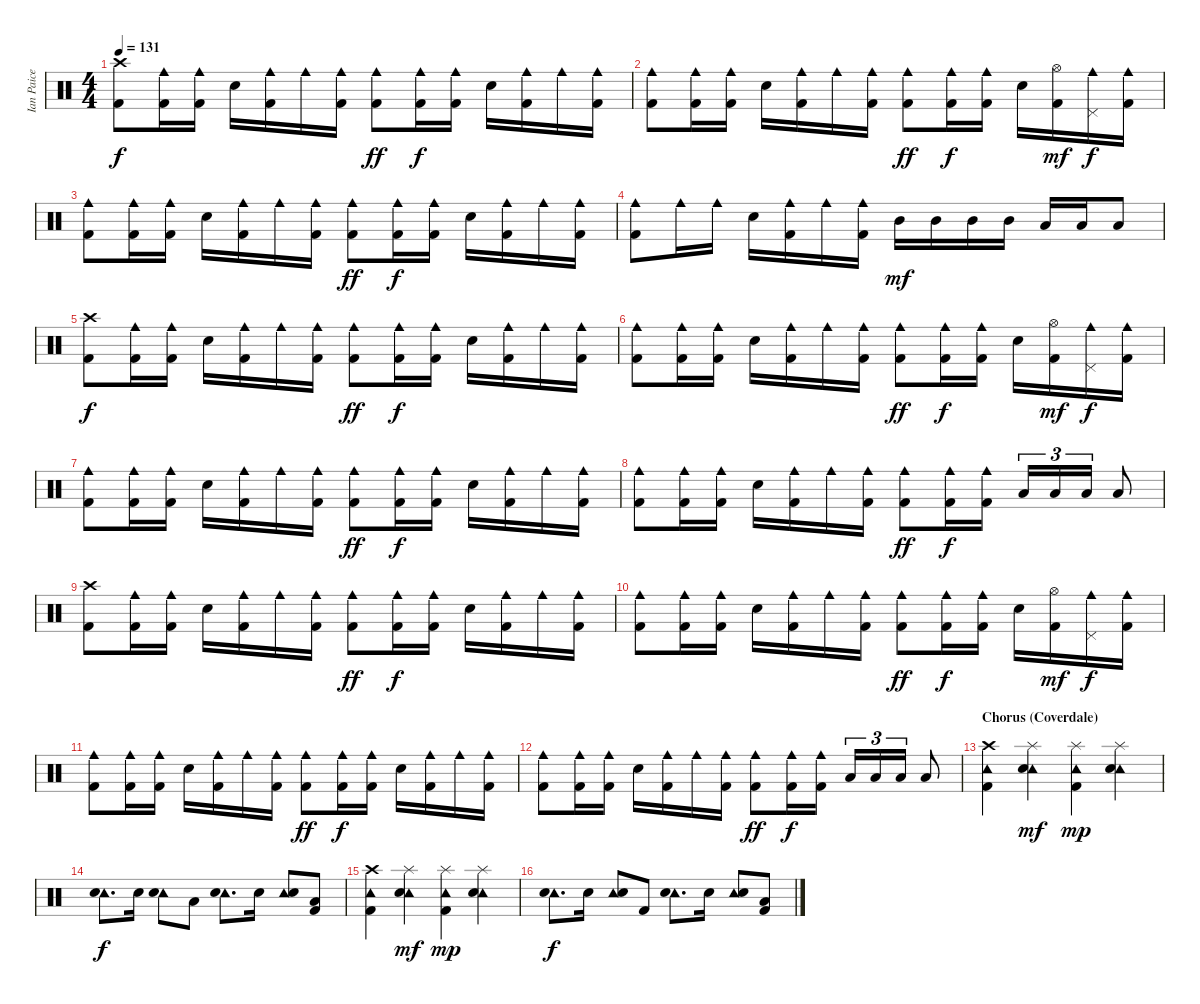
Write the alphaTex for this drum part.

\track ("Ian Paice" "Ian Paice") {instrument percussion}
\staff {score}
\articulation defaults
\ts (4 4)
\tempo 131
\clef neutral
\ks c
("Crash high (hit)" "Kick (hit) 2").8{dy f} ("Cowbell medium (hit)" "Kick (hit) 2").16 ("Cowbell medium (hit)" "Kick (hit) 2").16 "Snare (hit) 2".16 ("Cowbell medium (hit)" "Kick (hit) 2").16 "Cowbell medium (hit)".16 ("Cowbell medium (hit)" "Kick (hit) 2").16 ("Cowbell medium (hit)" "Kick (hit) 2").8{dy ff} ("Cowbell medium (hit)" "Kick (hit) 2").16{dy f} ("Cowbell medium (hit)" "Kick (hit) 2").16 "Snare (hit) 2".16 ("Cowbell medium (hit)" "Kick (hit) 2").16 "Cowbell medium (hit)".16 ("Cowbell medium (hit)" "Kick (hit) 2").16 |
("Cowbell medium (hit)" "Kick (hit) 2").8 ("Cowbell medium (hit)" "Kick (hit) 2").16 ("Cowbell medium (hit)" "Kick (hit) 2").16 "Snare (hit) 2".16 ("Cowbell medium (hit)" "Kick (hit) 2").16 "Cowbell medium (hit)".16 ("Cowbell medium (hit)" "Kick (hit) 2").16 ("Cowbell medium (hit)" "Kick (hit) 2").8{dy ff} ("Cowbell medium (hit)" "Kick (hit) 2").16{dy f} ("Cowbell medium (hit)" "Kick (hit) 2").16 "Snare (hit) 2".16 ("Hi-Hat (open)" "Kick (hit) 2").16{dy mf} ("Pedal Hi-Hat (hit)" "Cowbell medium (hit)").16{dy f} ("Cowbell medium (hit)" "Kick (hit) 2").16 |
("Cowbell medium (hit)" "Kick (hit) 2").8 ("Cowbell medium (hit)" "Kick (hit) 2").16 ("Cowbell medium (hit)" "Kick (hit) 2").16 "Snare (hit) 2".16 ("Cowbell medium (hit)" "Kick (hit) 2").16 "Cowbell medium (hit)".16 ("Cowbell medium (hit)" "Kick (hit) 2").16 ("Cowbell medium (hit)" "Kick (hit) 2").8{dy ff} ("Cowbell medium (hit)" "Kick (hit) 2").16{dy f} ("Cowbell medium (hit)" "Kick (hit) 2").16 "Snare (hit) 2".16 ("Cowbell medium (hit)" "Kick (hit) 2").16 "Cowbell medium (hit)".16 ("Cowbell medium (hit)" "Kick (hit) 2").16 |
("Cowbell medium (hit)" "Kick (hit) 2").8 "Cowbell medium (hit)".16 "Cowbell medium (hit)".16 "Snare (hit) 2".16 ("Cowbell medium (hit)" "Kick (hit) 2").16 "Cowbell medium (hit)".16 ("Cowbell medium (hit)" "Kick (hit) 2").16 "Mid Tom (hit)".16{dy mf} "Mid Tom (hit)".16 "Mid Tom (hit)".16 "Mid Tom (hit)".16 "Low Tom (hit)".16 "Low Tom (hit)".16 "Low Tom (hit)".8 |
("Crash high (hit)" "Kick (hit) 2").8{dy f} ("Cowbell medium (hit)" "Kick (hit) 2").16 ("Cowbell medium (hit)" "Kick (hit) 2").16 "Snare (hit) 2".16 ("Cowbell medium (hit)" "Kick (hit) 2").16 "Cowbell medium (hit)".16 ("Cowbell medium (hit)" "Kick (hit) 2").16 ("Cowbell medium (hit)" "Kick (hit) 2").8{dy ff} ("Cowbell medium (hit)" "Kick (hit) 2").16{dy f} ("Cowbell medium (hit)" "Kick (hit) 2").16 "Snare (hit) 2".16 ("Cowbell medium (hit)" "Kick (hit) 2").16 "Cowbell medium (hit)".16 ("Cowbell medium (hit)" "Kick (hit) 2").16 |
("Cowbell medium (hit)" "Kick (hit) 2").8 ("Cowbell medium (hit)" "Kick (hit) 2").16 ("Cowbell medium (hit)" "Kick (hit) 2").16 "Snare (hit) 2".16 ("Cowbell medium (hit)" "Kick (hit) 2").16 "Cowbell medium (hit)".16 ("Cowbell medium (hit)" "Kick (hit) 2").16 ("Cowbell medium (hit)" "Kick (hit) 2").8{dy ff} ("Cowbell medium (hit)" "Kick (hit) 2").16{dy f} ("Cowbell medium (hit)" "Kick (hit) 2").16 "Snare (hit) 2".16 ("Hi-Hat (open)" "Kick (hit) 2").16{dy mf} ("Pedal Hi-Hat (hit)" "Cowbell medium (hit)").16{dy f} ("Cowbell medium (hit)" "Kick (hit) 2").16 |
("Cowbell medium (hit)" "Kick (hit) 2").8 ("Cowbell medium (hit)" "Kick (hit) 2").16 ("Cowbell medium (hit)" "Kick (hit) 2").16 "Snare (hit) 2".16 ("Cowbell medium (hit)" "Kick (hit) 2").16 "Cowbell medium (hit)".16 ("Cowbell medium (hit)" "Kick (hit) 2").16 ("Cowbell medium (hit)" "Kick (hit) 2").8{dy ff} ("Cowbell medium (hit)" "Kick (hit) 2").16{dy f} ("Cowbell medium (hit)" "Kick (hit) 2").16 "Snare (hit) 2".16 ("Cowbell medium (hit)" "Kick (hit) 2").16 "Cowbell medium (hit)".16 ("Cowbell medium (hit)" "Kick (hit) 2").16 |
("Cowbell medium (hit)" "Kick (hit) 2").8 ("Cowbell medium (hit)" "Kick (hit) 2").16 ("Cowbell medium (hit)" "Kick (hit) 2").16 "Snare (hit) 2".16 ("Cowbell medium (hit)" "Kick (hit) 2").16 "Cowbell medium (hit)".16 ("Cowbell medium (hit)" "Kick (hit) 2").16 ("Cowbell medium (hit)" "Kick (hit) 2").8{dy ff} ("Cowbell medium (hit)" "Kick (hit) 2").16{dy f} ("Cowbell medium (hit)" "Kick (hit) 2").16 "Low Tom (hit)".16{tu (3 2)} "Low Tom (hit)".16{tu (3 2)} "Low Tom (hit)".16{tu (3 2)} "Low Floor Tom (hit)".8 |
("Crash high (hit)" "Kick (hit) 2").8 ("Cowbell medium (hit)" "Kick (hit) 2").16 ("Cowbell medium (hit)" "Kick (hit) 2").16 "Snare (hit) 2".16 ("Cowbell medium (hit)" "Kick (hit) 2").16 "Cowbell medium (hit)".16 ("Cowbell medium (hit)" "Kick (hit) 2").16 ("Cowbell medium (hit)" "Kick (hit) 2").8{dy ff} ("Cowbell medium (hit)" "Kick (hit) 2").16{dy f} ("Cowbell medium (hit)" "Kick (hit) 2").16 "Snare (hit) 2".16 ("Cowbell medium (hit)" "Kick (hit) 2").16 "Cowbell medium (hit)".16 ("Cowbell medium (hit)" "Kick (hit) 2").16 |
("Cowbell medium (hit)" "Kick (hit) 2").8 ("Cowbell medium (hit)" "Kick (hit) 2").16 ("Cowbell medium (hit)" "Kick (hit) 2").16 "Snare (hit) 2".16 ("Cowbell medium (hit)" "Kick (hit) 2").16 "Cowbell medium (hit)".16 ("Cowbell medium (hit)" "Kick (hit) 2").16 ("Cowbell medium (hit)" "Kick (hit) 2").8{dy ff} ("Cowbell medium (hit)" "Kick (hit) 2").16{dy f} ("Cowbell medium (hit)" "Kick (hit) 2").16 "Snare (hit) 2".16 ("Hi-Hat (open)" "Kick (hit) 2").16{dy mf} ("Pedal Hi-Hat (hit)" "Cowbell medium (hit)").16{dy f} ("Cowbell medium (hit)" "Kick (hit) 2").16 |
("Cowbell medium (hit)" "Kick (hit) 2").8 ("Cowbell medium (hit)" "Kick (hit) 2").16 ("Cowbell medium (hit)" "Kick (hit) 2").16 "Snare (hit) 2".16 ("Cowbell medium (hit)" "Kick (hit) 2").16 "Cowbell medium (hit)".16 ("Cowbell medium (hit)" "Kick (hit) 2").16 ("Cowbell medium (hit)" "Kick (hit) 2").8{dy ff} ("Cowbell medium (hit)" "Kick (hit) 2").16{dy f} ("Cowbell medium (hit)" "Kick (hit) 2").16 "Snare (hit) 2".16 ("Cowbell medium (hit)" "Kick (hit) 2").16 "Cowbell medium (hit)".16 ("Cowbell medium (hit)" "Kick (hit) 2").16 |
("Cowbell medium (hit)" "Kick (hit) 2").8 ("Cowbell medium (hit)" "Kick (hit) 2").16 ("Cowbell medium (hit)" "Kick (hit) 2").16 "Snare (hit) 2".16 ("Cowbell medium (hit)" "Kick (hit) 2").16 "Cowbell medium (hit)".16 ("Cowbell medium (hit)" "Kick (hit) 2").16 ("Cowbell medium (hit)" "Kick (hit) 2").8{dy ff} ("Cowbell medium (hit)" "Kick (hit) 2").16{dy f} ("Cowbell medium (hit)" "Kick (hit) 2").16 "Low Floor Tom (hit)".16{tu (3 2)} "Low Floor Tom (hit)".16{tu (3 2)} "Low Tom (hit)".16{tu (3 2)} "Low Floor Tom (hit)".8 |
\section ("" "Chorus (Coverdale)")
("Crash high (hit)" "Tambourine (hit)" "Kick (hit) 2").4 ("Splash (hit)" "Tambourine (hit)" "Snare (hit) 2").4{dy mf} ("Splash (hit)" "Tambourine (hit)" "Kick (hit) 2").4{dy mp} ("Splash (hit)" "Tambourine (hit)" "Snare (hit) 2").4 |
("Tambourine (hit)" "Snare (hit) 2").8{d dy f} "Snare (hit) 2".16 ("Tambourine (hit)" "Snare (hit) 2").8 "Low Tom (hit)".8 ("Tambourine (hit)" "Snare (hit) 2").8{d} "Snare (hit) 2".16 ("Tambourine (hit)" "Snare (hit) 2").8 ("Low Tom (hit)" "Kick (hit) 2").8 |
("Crash high (hit)" "Tambourine (hit)" "Kick (hit) 2").4 ("Splash (hit)" "Tambourine (hit)" "Snare (hit) 2").4{dy mf} ("Splash (hit)" "Tambourine (hit)" "Kick (hit) 2").4{dy mp} ("Splash (hit)" "Tambourine (hit)" "Snare (hit) 2").4 |
("Tambourine (hit)" "Snare (hit) 2").8{d dy f} "Snare (hit) 2".16 ("Tambourine (hit)" "Snare (hit) 2").8 "Kick (hit) 2".8 ("Tambourine (hit)" "Snare (hit) 2").8{d} "Snare (hit) 2".16 ("Tambourine (hit)" "Snare (hit) 2").8 ("Low Tom (hit)" "Kick (hit) 2").8
